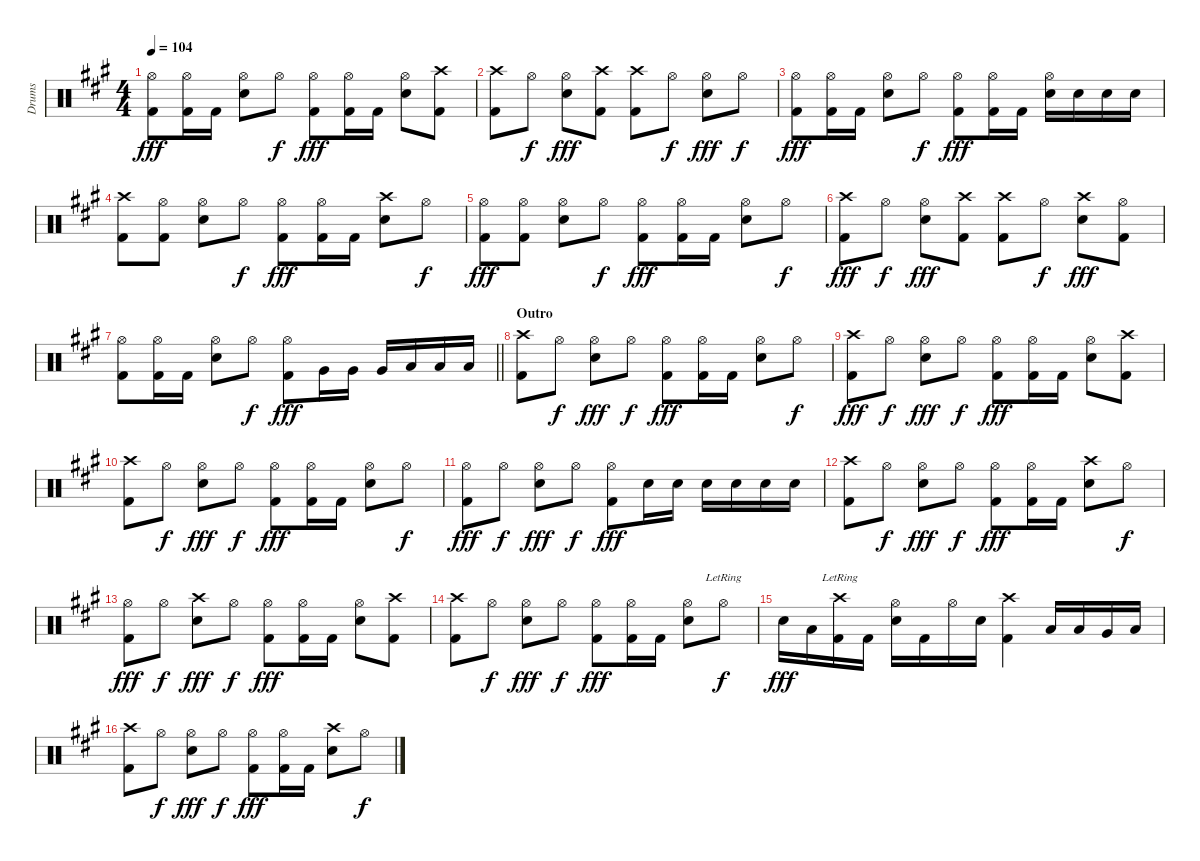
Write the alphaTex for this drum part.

\track ("Drums" "Drums") {instrument percussion}
\staff {score}
\articulation defaults
\ts (4 4)
\tempo 104
\clef neutral
\ks a
("Hi-Hat (open)" "Kick (hit) 2").8{dy fff} ("Hi-Hat (open)" "Kick (hit) 2").16 "Kick (hit) 2".16 ("Hi-Hat (open)" "Snare (hit) 2").8 "Hi-Hat (open)".8{dy f} ("Hi-Hat (open)" "Kick (hit) 2").8{dy fff} ("Hi-Hat (open)" "Kick (hit) 2").16 "Kick (hit) 2".16 ("Hi-Hat (open)" "Snare (hit) 2").8 ("Crash high (hit)" "Kick (hit) 2").8 |
("Crash high (hit)" "Kick (hit) 2").8 "Hi-Hat (open)".8{dy f} ("Hi-Hat (open)" "Snare (hit) 2").8{dy fff} ("Crash high (hit)" "Kick (hit) 2").8 ("Crash high (hit)" "Kick (hit) 2").8 "Hi-Hat (open)".8{dy f} ("Hi-Hat (open)" "Snare (hit) 2").8{dy fff} "Hi-Hat (open)".8{dy f} |
("Hi-Hat (open)" "Kick (hit) 2").8{dy fff} ("Hi-Hat (open)" "Kick (hit) 2").16 "Kick (hit) 2".16 ("Hi-Hat (open)" "Snare (hit) 2").8 "Hi-Hat (open)".8{dy f} ("Hi-Hat (open)" "Kick (hit) 2").8{dy fff} ("Hi-Hat (open)" "Kick (hit) 2").16 "Kick (hit) 2".16 ("Hi-Hat (open)" "Snare (hit) 2").16 "Snare (hit) 2".16 "Snare (hit) 2".16 "Snare (hit) 2".16 |
("Crash high (hit)" "Kick (hit) 2").8 ("Hi-Hat (open)" "Kick (hit) 2").8 ("Hi-Hat (open)" "Snare (hit) 2").8 "Hi-Hat (open)".8{dy f} ("Hi-Hat (open)" "Kick (hit) 2").8{dy fff} ("Hi-Hat (open)" "Kick (hit) 2").16 "Kick (hit) 2".16 ("Crash high (hit)" "Snare (hit) 2").8 "Hi-Hat (open)".8{dy f} |
("Hi-Hat (open)" "Kick (hit) 2").8{dy fff} ("Hi-Hat (open)" "Kick (hit) 2").8 ("Hi-Hat (open)" "Snare (hit) 2").8 "Hi-Hat (open)".8{dy f} ("Hi-Hat (open)" "Kick (hit) 2").8{dy fff} ("Hi-Hat (open)" "Kick (hit) 2").16 "Kick (hit) 2".16 ("Hi-Hat (open)" "Snare (hit) 2").8 "Hi-Hat (open)".8{dy f} |
("Crash high (hit)" "Kick (hit) 2").8{dy fff} "Hi-Hat (open)".8{dy f} ("Hi-Hat (open)" "Snare (hit) 2").8{dy fff} ("Crash high (hit)" "Kick (hit) 2").8 ("Crash high (hit)" "Kick (hit) 2").8 "Hi-Hat (open)".8{dy f} ("Crash high (hit)" "Snare (hit) 2").8{dy fff} ("Hi-Hat (open)" "Kick (hit) 2").8 |
\barLineRight lightlight
("Hi-Hat (open)" "Kick (hit) 2").8 ("Hi-Hat (open)" "Kick (hit) 2").16 "Kick (hit) 2".16 ("Hi-Hat (open)" "Snare (hit) 2").8 "Hi-Hat (open)".8{dy f} ("Hi-Hat (open)" "Kick (hit) 2").8{dy fff} "Very Low Tom (hit)".16 "Very Low Tom (hit)".16 "Very Low Tom (hit)".16 "Low Floor Tom (hit)".16 "Low Floor Tom (hit)".16 "Low Floor Tom (hit)".16 |
\section ("" "Outro")
("Crash high (hit)" "Kick (hit) 2").8 "Hi-Hat (open)".8{dy f} ("Hi-Hat (open)" "Snare (hit) 2").8{dy fff} "Hi-Hat (open)".8{dy f} ("Hi-Hat (open)" "Kick (hit) 2").8{dy fff} ("Hi-Hat (open)" "Kick (hit) 2").16 "Kick (hit) 2".16 ("Hi-Hat (open)" "Snare (hit) 2").8 "Hi-Hat (open)".8{dy f} |
("Crash high (hit)" "Kick (hit) 2").8{dy fff} "Hi-Hat (open)".8{dy f} ("Hi-Hat (open)" "Snare (hit) 2").8{dy fff} "Hi-Hat (open)".8{dy f} ("Hi-Hat (open)" "Kick (hit) 2").8{dy fff} ("Hi-Hat (open)" "Kick (hit) 2").16 "Kick (hit) 2".16 ("Hi-Hat (open)" "Snare (hit) 2").8 ("Crash high (hit)" "Kick (hit) 2").8 |
("Crash high (hit)" "Kick (hit) 2").8 "Hi-Hat (open)".8{dy f} ("Hi-Hat (open)" "Snare (hit) 2").8{dy fff} "Hi-Hat (open)".8{dy f} ("Hi-Hat (open)" "Kick (hit) 2").8{dy fff} ("Hi-Hat (open)" "Kick (hit) 2").16 "Kick (hit) 2".16 ("Hi-Hat (open)" "Snare (hit) 2").8 "Hi-Hat (open)".8{dy f} |
("Hi-Hat (open)" "Kick (hit) 2").8{dy fff} "Hi-Hat (open)".8{dy f} ("Hi-Hat (open)" "Snare (hit) 2").8{dy fff} "Hi-Hat (open)".8{dy f} ("Hi-Hat (open)" "Kick (hit) 2").8{dy fff} "Snare (hit) 2".16 "Snare (hit) 2".16 "Snare (hit) 2".16 "Snare (hit) 2".16 "Snare (hit) 2".16 "Snare (hit) 2".16 |
("Crash high (hit)" "Kick (hit) 2").8 "Hi-Hat (open)".8{dy f} ("Hi-Hat (open)" "Snare (hit) 2").8{dy fff} "Hi-Hat (open)".8{dy f} ("Hi-Hat (open)" "Kick (hit) 2").8{dy fff} ("Hi-Hat (open)" "Kick (hit) 2").16 "Kick (hit) 2".16 ("Crash high (hit)" "Snare (hit) 2").8 "Hi-Hat (open)".8{dy f} |
("Hi-Hat (open)" "Kick (hit) 2").8{dy fff} "Hi-Hat (open)".8{dy f} ("Crash high (hit)" "Snare (hit) 2").8{dy fff} "Hi-Hat (open)".8{dy f} ("Hi-Hat (open)" "Kick (hit) 2").8{dy fff} ("Hi-Hat (open)" "Kick (hit) 2").16 "Kick (hit) 2".16 ("Hi-Hat (open)" "Snare (hit) 2").8 ("Crash high (hit)" "Kick (hit) 2").8 |
("Crash high (hit)" "Kick (hit) 2").8 "Hi-Hat (open)".8{dy f} ("Hi-Hat (open)" "Snare (hit) 2").8{dy fff} "Hi-Hat (open)".8{dy f} ("Hi-Hat (open)" "Kick (hit) 2").8{dy fff} ("Hi-Hat (open)" "Kick (hit) 2").16 "Kick (hit) 2".16 ("Hi-Hat (open)" "Snare (hit) 2").8 "Hi-Hat (open)"{lr}.8{dy f} |
"Snare (hit) 2".16{dy fff} "Low Floor Tom (hit)".16 ("Crash high (hit)"{lr} "Kick (hit) 2").16 "Kick (hit) 2".16 ("Hi-Hat (open)" "Snare (hit) 2").16 "Kick (hit) 2".16 "Hi-Hat (open)".16 "Snare (hit) 2".16 ("Crash high (hit)" "Kick (hit) 2").4 "Low Tom (hit)".16 "Low Tom (hit)".16 "Very Low Tom (hit)".16 "Low Floor Tom (hit)".16 |
("Crash high (hit)" "Kick (hit) 2").8 "Hi-Hat (open)".8{dy f} ("Hi-Hat (open)" "Snare (hit) 2").8{dy fff} "Hi-Hat (open)".8{dy f} ("Hi-Hat (open)" "Kick (hit) 2").8{dy fff} ("Hi-Hat (open)" "Kick (hit) 2").16 "Kick (hit) 2".16 ("Crash high (hit)" "Snare (hit) 2").8 "Hi-Hat (open)".8{dy f}
